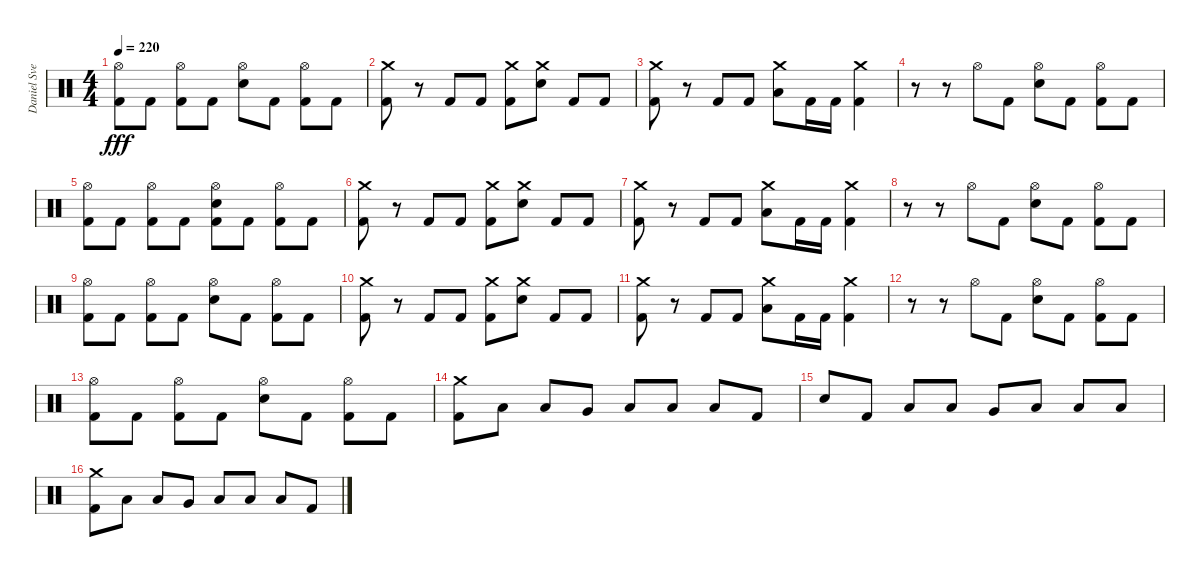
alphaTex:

\track ("Daniel Svensson" "Daniel Sve") {instrument percussion}
\staff {score}
\articulation defaults
\ts (4 4)
\tempo 220
\clef neutral
\ks c
("Hi-Hat (open)" "Kick (hit) 2").8{dy fff} "Kick (hit) 2".8 ("Hi-Hat (open)" "Kick (hit) 2").8 "Kick (hit) 2".8 ("Hi-Hat (open)" "Electric Snare (hit)").8 "Kick (hit) 2".8 ("Hi-Hat (open)" "Kick (hit) 2").8 "Kick (hit) 2".8 |
("Crash medium (hit)" "Kick (hit) 2").8 r.8 "Kick (hit) 2".8 "Kick (hit) 2".8 ("Crash medium (hit)" "Kick (hit) 2").8 ("Crash medium (hit)" "Electric Snare (hit)").8 "Kick (hit) 2".8 "Kick (hit) 2".8 |
("Crash medium (hit)" "Kick (hit) 2").8 r.8 "Kick (hit) 2".8 "Kick (hit) 2".8 ("Crash medium (hit)" "Low Floor Tom (hit)").8 "Kick (hit) 2".16 "Kick (hit) 2".16 ("Crash medium (hit)" "Kick (hit) 2").4 |
r.8 r.8 "Hi-Hat (open)".8 "Kick (hit) 2".8 ("Hi-Hat (open)" "Electric Snare (hit)").8 "Kick (hit) 2".8 ("Hi-Hat (open)" "Kick (hit) 2").8 "Kick (hit) 2".8 |
("Hi-Hat (open)" "Kick (hit) 2").8 "Kick (hit) 2".8 ("Hi-Hat (open)" "Kick (hit) 2").8 "Kick (hit) 2".8 ("Hi-Hat (open)" "Electric Snare (hit)" "Kick (hit) 2").8 "Kick (hit) 2".8 ("Hi-Hat (open)" "Kick (hit) 2").8 "Kick (hit) 2".8 |
("Crash medium (hit)" "Kick (hit) 2").8 r.8 "Kick (hit) 2".8 "Kick (hit) 2".8 ("Crash medium (hit)" "Kick (hit) 2").8 ("Crash medium (hit)" "Electric Snare (hit)").8 "Kick (hit) 2".8 "Kick (hit) 2".8 |
("Crash medium (hit)" "Kick (hit) 2").8 r.8 "Kick (hit) 2".8 "Kick (hit) 2".8 ("Crash medium (hit)" "Low Floor Tom (hit)").8 "Kick (hit) 2".16 "Kick (hit) 2".16 ("Crash medium (hit)" "Kick (hit) 2").4 |
r.8 r.8 "Hi-Hat (open)".8 "Kick (hit) 2".8 ("Hi-Hat (open)" "Electric Snare (hit)").8 "Kick (hit) 2".8 ("Hi-Hat (open)" "Kick (hit) 2").8 "Kick (hit) 2".8 |
("Hi-Hat (open)" "Kick (hit) 2").8 "Kick (hit) 2".8 ("Hi-Hat (open)" "Kick (hit) 2").8 "Kick (hit) 2".8 ("Hi-Hat (open)" "Electric Snare (hit)").8 "Kick (hit) 2".8 ("Hi-Hat (open)" "Kick (hit) 2").8 "Kick (hit) 2".8 |
("Crash medium (hit)" "Kick (hit) 2").8 r.8 "Kick (hit) 2".8 "Kick (hit) 2".8 ("Crash medium (hit)" "Kick (hit) 2").8 ("Crash medium (hit)" "Electric Snare (hit)").8 "Kick (hit) 2".8 "Kick (hit) 2".8 |
("Crash medium (hit)" "Kick (hit) 2").8 r.8 "Kick (hit) 2".8 "Kick (hit) 2".8 ("Crash medium (hit)" "Low Floor Tom (hit)").8 "Kick (hit) 2".16 "Kick (hit) 2".16 ("Crash medium (hit)" "Kick (hit) 2").4 |
r.8 r.8 "Hi-Hat (open)".8 "Kick (hit) 2".8 ("Hi-Hat (open)" "Electric Snare (hit)").8 "Kick (hit) 2".8 ("Hi-Hat (open)" "Kick (hit) 2").8 "Kick (hit) 2".8 |
("Hi-Hat (open)" "Kick (hit) 2").8 "Kick (hit) 2".8 ("Hi-Hat (open)" "Kick (hit) 2").8 "Kick (hit) 2".8 ("Hi-Hat (open)" "Electric Snare (hit)").8 "Kick (hit) 2".8 ("Hi-Hat (open)" "Kick (hit) 2").8 "Kick (hit) 2".8 |
("Crash medium (hit)" "Kick (hit) 2").8 "Low Tom (hit)".8 "Low Floor Tom (hit)".8 "Very Low Tom (hit)".8 "Low Tom (hit)".8 "Low Floor Tom (hit)".8 "Low Floor Tom (hit)".8 "Kick (hit) 2".8 |
"Electric Snare (hit)".8 "Kick (hit) 2".8 "Low Floor Tom (hit)".8 "Low Tom (hit)".8 "Very Low Tom (hit)".8 "Low Floor Tom (hit)".8 "Low Tom (hit)".8 "Low Floor Tom (hit)".8 |
("Crash medium (hit)" "Kick (hit) 2").8 "Low Tom (hit)".8 "Low Floor Tom (hit)".8 "Very Low Tom (hit)".8 "Low Tom (hit)".8 "Low Floor Tom (hit)".8 "Low Floor Tom (hit)".8 "Kick (hit) 2".8
